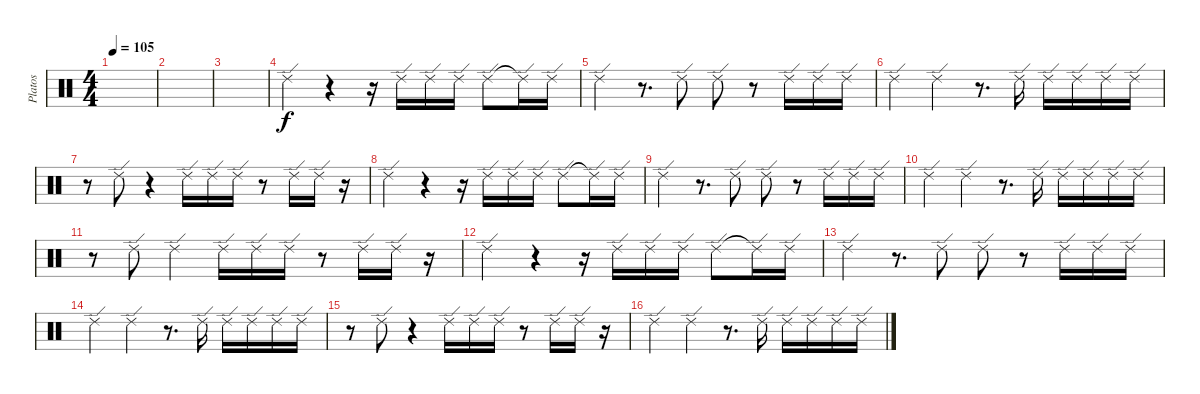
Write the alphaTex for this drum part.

\track ("Platos" "Platos") {instrument percussion}
\staff {score}
\articulation defaults
\ts (4 4)
\tempo 105
\clef neutral
\ks c
|
|
|
"Ride (edge) 2".4 r.4 r.16 "Ride (edge) 2".16 "Ride (edge) 2".16 "Ride (edge) 2".16 "Ride (edge) 2".8 "Ride (edge) 2"{t}.16 "Ride (edge) 2".16 |
"Ride (edge) 2".4 r.8{d} "Ride (edge) 2".8 "Ride (edge) 2".8 r.8 "Ride (edge) 2".16 "Ride (edge) 2".16 "Ride (edge) 2".16 |
"Ride (edge) 2".4 "Ride (edge) 2".4 r.8{d} "Ride (edge) 2".16 "Ride (edge) 2".16 "Ride (edge) 2".16 "Ride (edge) 2".16 "Ride (edge) 2".16 |
r.8 "Ride (edge) 2".8 r.4 "Ride (edge) 2".16 "Ride (edge) 2".16 "Ride (edge) 2".16 r.8 "Ride (edge) 2".16 "Ride (edge) 2".16 r.16 |
"Ride (edge) 2".4 r.4 r.16 "Ride (edge) 2".16 "Ride (edge) 2".16 "Ride (edge) 2".16 "Ride (edge) 2".8 "Ride (edge) 2"{t}.16 "Ride (edge) 2".16 |
"Ride (edge) 2".4 r.8{d} "Ride (edge) 2".8 "Ride (edge) 2".8 r.8 "Ride (edge) 2".16 "Ride (edge) 2".16 "Ride (edge) 2".16 |
"Ride (edge) 2".4 "Ride (edge) 2".4 r.8{d} "Ride (edge) 2".16 "Ride (edge) 2".16 "Ride (edge) 2".16 "Ride (edge) 2".16 "Ride (edge) 2".16 |
r.8 "Ride (edge) 2".8 "Ride (edge) 2".4 "Ride (edge) 2".16 "Ride (edge) 2".16 "Ride (edge) 2".16 r.8 "Ride (edge) 2".16 "Ride (edge) 2".16 r.16 |
"Ride (edge) 2".4 r.4 r.16 "Ride (edge) 2".16 "Ride (edge) 2".16 "Ride (edge) 2".16 "Ride (edge) 2".8 "Ride (edge) 2"{t}.16 "Ride (edge) 2".16 |
"Ride (edge) 2".4 r.8{d} "Ride (edge) 2".8 "Ride (edge) 2".8 r.8 "Ride (edge) 2".16 "Ride (edge) 2".16 "Ride (edge) 2".16 |
"Ride (edge) 2".4 "Ride (edge) 2".4 r.8{d} "Ride (edge) 2".16 "Ride (edge) 2".16 "Ride (edge) 2".16 "Ride (edge) 2".16 "Ride (edge) 2".16 |
r.8 "Ride (edge) 2".8 r.4 "Ride (edge) 2".16 "Ride (edge) 2".16 "Ride (edge) 2".16 r.8 "Ride (edge) 2".16 "Ride (edge) 2".16 r.16 |
"Ride (edge) 2".4 "Ride (edge) 2".4 r.8{d} "Ride (edge) 2".16 "Ride (edge) 2".16 "Ride (edge) 2".16 "Ride (edge) 2".16 "Ride (edge) 2".16
